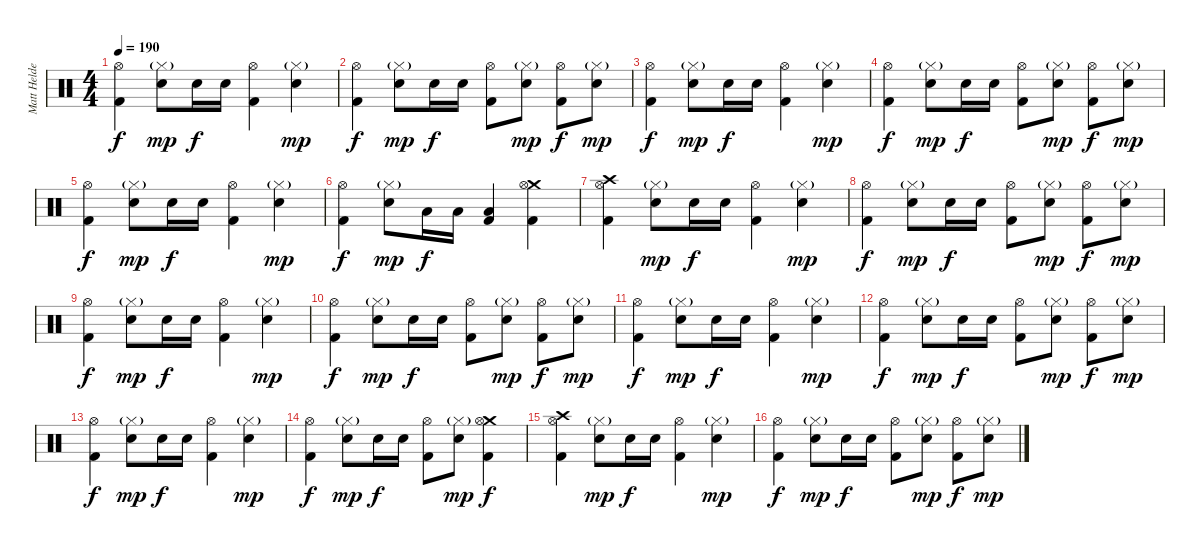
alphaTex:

\track ("Matt Helders (Percussion)" "Matt Helde") {instrument percussion}
\staff {score}
\articulation defaults
\ts (4 4)
\tempo 190
\clef neutral
\ks c
("Hi-Hat (open)" "Kick (hit) 2").4{dy f} ("Hi-Hat (closed)"{g} "Snare (hit) 2").8{dy mp} "Snare (hit) 2".16{dy f} "Snare (hit) 2".16 ("Hi-Hat (open)" "Kick (hit) 2").4 ("Hi-Hat (closed)"{g} "Snare (hit) 2").4{dy mp} |
("Hi-Hat (open)" "Kick (hit) 2").4{dy f} ("Hi-Hat (closed)"{g} "Snare (hit) 2").8{dy mp} "Snare (hit) 2".16{dy f} "Snare (hit) 2".16 ("Hi-Hat (open)" "Kick (hit) 2").8 ("Hi-Hat (closed)"{g} "Snare (hit) 2").8{dy mp} ("Hi-Hat (open)" "Kick (hit) 2").8{dy f} ("Hi-Hat (closed)"{g} "Snare (hit) 2").8{dy mp} |
("Hi-Hat (open)" "Kick (hit) 2").4{dy f} ("Hi-Hat (closed)"{g} "Snare (hit) 2").8{dy mp} "Snare (hit) 2".16{dy f} "Snare (hit) 2".16 ("Hi-Hat (open)" "Kick (hit) 2").4 ("Hi-Hat (closed)"{g} "Snare (hit) 2").4{dy mp} |
("Hi-Hat (open)" "Kick (hit) 2").4{dy f} ("Hi-Hat (closed)"{g} "Snare (hit) 2").8{dy mp} "Snare (hit) 2".16{dy f} "Snare (hit) 2".16 ("Hi-Hat (open)" "Kick (hit) 2").8 ("Hi-Hat (closed)"{g} "Snare (hit) 2").8{dy mp} ("Hi-Hat (open)" "Kick (hit) 2").8{dy f} ("Hi-Hat (closed)"{g} "Snare (hit) 2").8{dy mp} |
("Hi-Hat (open)" "Kick (hit) 2").4{dy f} ("Hi-Hat (closed)"{g} "Snare (hit) 2").8{dy mp} "Snare (hit) 2".16{dy f} "Snare (hit) 2".16 ("Hi-Hat (open)" "Kick (hit) 2").4 ("Hi-Hat (closed)"{g} "Snare (hit) 2").4{dy mp} |
("Hi-Hat (open)" "Kick (hit) 2").4{dy f} ("Hi-Hat (closed)"{g} "Snare (hit) 2").8{dy mp} "Low Tom (hit)".16{dy f} "Low Tom (hit)".16 ("Low Tom (hit)" "Kick (hit) 2").4 ("Crash medium (hit)" "Hi-Hat (open)" "Kick (hit) 2").4 |
("Crash high (hit)" "Hi-Hat (open)" "Kick (hit) 2").4 ("Hi-Hat (closed)"{g} "Snare (hit) 2").8{dy mp} "Snare (hit) 2".16{dy f} "Snare (hit) 2".16 ("Hi-Hat (open)" "Kick (hit) 2").4 ("Hi-Hat (closed)"{g} "Snare (hit) 2").4{dy mp} |
("Hi-Hat (open)" "Kick (hit) 2").4{dy f} ("Hi-Hat (closed)"{g} "Snare (hit) 2").8{dy mp} "Snare (hit) 2".16{dy f} "Snare (hit) 2".16 ("Hi-Hat (open)" "Kick (hit) 2").8 ("Hi-Hat (closed)"{g} "Snare (hit) 2").8{dy mp} ("Hi-Hat (open)" "Kick (hit) 2").8{dy f} ("Hi-Hat (closed)"{g} "Snare (hit) 2").8{dy mp} |
("Hi-Hat (open)" "Kick (hit) 2").4{dy f} ("Hi-Hat (closed)"{g} "Snare (hit) 2").8{dy mp} "Snare (hit) 2".16{dy f} "Snare (hit) 2".16 ("Hi-Hat (open)" "Kick (hit) 2").4 ("Hi-Hat (closed)"{g} "Snare (hit) 2").4{dy mp} |
("Hi-Hat (open)" "Kick (hit) 2").4{dy f} ("Hi-Hat (closed)"{g} "Snare (hit) 2").8{dy mp} "Snare (hit) 2".16{dy f} "Snare (hit) 2".16 ("Hi-Hat (open)" "Kick (hit) 2").8 ("Hi-Hat (closed)"{g} "Snare (hit) 2").8{dy mp} ("Hi-Hat (open)" "Kick (hit) 2").8{dy f} ("Hi-Hat (closed)"{g} "Snare (hit) 2").8{dy mp} |
("Hi-Hat (open)" "Kick (hit) 2").4{dy f} ("Hi-Hat (closed)"{g} "Snare (hit) 2").8{dy mp} "Snare (hit) 2".16{dy f} "Snare (hit) 2".16 ("Hi-Hat (open)" "Kick (hit) 2").4 ("Hi-Hat (closed)"{g} "Snare (hit) 2").4{dy mp} |
("Hi-Hat (open)" "Kick (hit) 2").4{dy f} ("Hi-Hat (closed)"{g} "Snare (hit) 2").8{dy mp} "Snare (hit) 2".16{dy f} "Snare (hit) 2".16 ("Hi-Hat (open)" "Kick (hit) 2").8 ("Hi-Hat (closed)"{g} "Snare (hit) 2").8{dy mp} ("Hi-Hat (open)" "Kick (hit) 2").8{dy f} ("Hi-Hat (closed)"{g} "Snare (hit) 2").8{dy mp} |
("Hi-Hat (open)" "Kick (hit) 2").4{dy f} ("Hi-Hat (closed)"{g} "Snare (hit) 2").8{dy mp} "Snare (hit) 2".16{dy f} "Snare (hit) 2".16 ("Hi-Hat (open)" "Kick (hit) 2").4 ("Hi-Hat (closed)"{g} "Snare (hit) 2").4{dy mp} |
("Hi-Hat (open)" "Kick (hit) 2").4{dy f} ("Hi-Hat (closed)"{g} "Snare (hit) 2").8{dy mp} "Snare (hit) 2".16{dy f} "Snare (hit) 2".16 ("Hi-Hat (open)" "Kick (hit) 2").8 ("Hi-Hat (closed)"{g} "Snare (hit) 2").8{dy mp} ("Crash medium (hit)" "Hi-Hat (open)" "Kick (hit) 2").4{dy f} |
("Crash high (hit)" "Hi-Hat (open)" "Kick (hit) 2").4 ("Hi-Hat (closed)"{g} "Snare (hit) 2").8{dy mp} "Snare (hit) 2".16{dy f} "Snare (hit) 2".16 ("Hi-Hat (open)" "Kick (hit) 2").4 ("Hi-Hat (closed)"{g} "Snare (hit) 2").4{dy mp} |
("Hi-Hat (open)" "Kick (hit) 2").4{dy f} ("Hi-Hat (closed)"{g} "Snare (hit) 2").8{dy mp} "Snare (hit) 2".16{dy f} "Snare (hit) 2".16 ("Hi-Hat (open)" "Kick (hit) 2").8 ("Hi-Hat (closed)"{g} "Snare (hit) 2").8{dy mp} ("Hi-Hat (open)" "Kick (hit) 2").8{dy f} ("Hi-Hat (closed)"{g} "Snare (hit) 2").8{dy mp}
